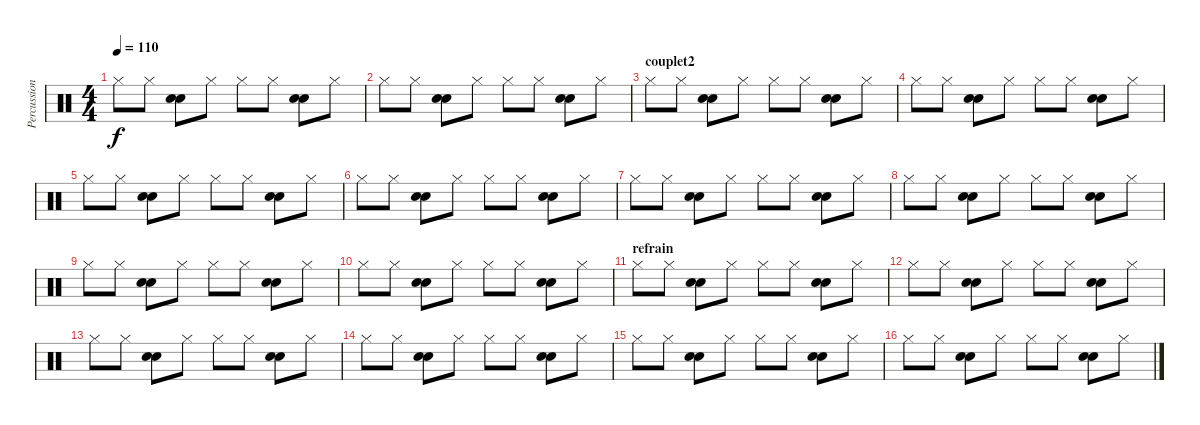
\track ("Percussions" "Percussion") {instrument percussion}
\staff {score}
\articulation defaults
\ts (4 4)
\tempo 110
\clef neutral
\ks c "Hi-Hat (closed)".8{dy f} "Hi-Hat (closed)".8
("Snare (hit) 2" "Electric Snare (hit)").8 "Hi-Hat (closed)".8 "Hi-Hat (closed)".8 "Hi-Hat (closed)".8 ("Snare (hit) 2" "Electric Snare (hit)").8 "Hi-Hat (closed)".8 |
"Hi-Hat (closed)".8 "Hi-Hat (closed)".8 ("Snare (hit) 2" "Electric Snare (hit)").8 "Hi-Hat (closed)".8 "Hi-Hat (closed)".8 "Hi-Hat (closed)".8 ("Snare (hit) 2" "Electric Snare (hit)").8 "Hi-Hat (closed)".8 |
\section ("" "couplet2")
"Hi-Hat (closed)".8 "Hi-Hat (closed)".8 ("Snare (hit) 2" "Electric Snare (hit)").8 "Hi-Hat (closed)".8 "Hi-Hat (closed)".8 "Hi-Hat (closed)".8 ("Snare (hit) 2" "Electric Snare (hit)").8 "Hi-Hat (closed)".8 |
"Hi-Hat (closed)".8 "Hi-Hat (closed)".8 ("Snare (hit) 2" "Electric Snare (hit)").8 "Hi-Hat (closed)".8 "Hi-Hat (closed)".8 "Hi-Hat (closed)".8 ("Snare (hit) 2" "Electric Snare (hit)").8 "Hi-Hat (closed)".8 |
"Hi-Hat (closed)".8 "Hi-Hat (closed)".8 ("Snare (hit) 2" "Electric Snare (hit)").8 "Hi-Hat (closed)".8 "Hi-Hat (closed)".8 "Hi-Hat (closed)".8 ("Snare (hit) 2" "Electric Snare (hit)").8 "Hi-Hat (closed)".8 |
"Hi-Hat (closed)".8 "Hi-Hat (closed)".8 ("Snare (hit) 2" "Electric Snare (hit)").8 "Hi-Hat (closed)".8 "Hi-Hat (closed)".8 "Hi-Hat (closed)".8 ("Snare (hit) 2" "Electric Snare (hit)").8 "Hi-Hat (closed)".8 |
"Hi-Hat (closed)".8 "Hi-Hat (closed)".8 ("Snare (hit) 2" "Electric Snare (hit)").8 "Hi-Hat (closed)".8 "Hi-Hat (closed)".8 "Hi-Hat (closed)".8 ("Snare (hit) 2" "Electric Snare (hit)").8 "Hi-Hat (closed)".8 |
"Hi-Hat (closed)".8 "Hi-Hat (closed)".8 ("Snare (hit) 2" "Electric Snare (hit)").8 "Hi-Hat (closed)".8 "Hi-Hat (closed)".8 "Hi-Hat (closed)".8 ("Snare (hit) 2" "Electric Snare (hit)").8 "Hi-Hat (closed)".8 |
"Hi-Hat (closed)".8 "Hi-Hat (closed)".8 ("Snare (hit) 2" "Electric Snare (hit)").8 "Hi-Hat (closed)".8 "Hi-Hat (closed)".8 "Hi-Hat (closed)".8 ("Snare (hit) 2" "Electric Snare (hit)").8 "Hi-Hat (closed)".8 |
"Hi-Hat (closed)".8 "Hi-Hat (closed)".8 ("Snare (hit) 2" "Electric Snare (hit)").8 "Hi-Hat (closed)".8 "Hi-Hat (closed)".8 "Hi-Hat (closed)".8 ("Snare (hit) 2" "Electric Snare (hit)").8 "Hi-Hat (closed)".8 |
\section ("" "refrain")
"Hi-Hat (closed)".8 "Hi-Hat (closed)".8 ("Snare (hit) 2" "Electric Snare (hit)").8 "Hi-Hat (closed)".8 "Hi-Hat (closed)".8 "Hi-Hat (closed)".8 ("Snare (hit) 2" "Electric Snare (hit)").8 "Hi-Hat (closed)".8 |
"Hi-Hat (closed)".8 "Hi-Hat (closed)".8 ("Snare (hit) 2" "Electric Snare (hit)").8 "Hi-Hat (closed)".8 "Hi-Hat (closed)".8 "Hi-Hat (closed)".8 ("Snare (hit) 2" "Electric Snare (hit)").8 "Hi-Hat (closed)".8 |
"Hi-Hat (closed)".8 "Hi-Hat (closed)".8 ("Snare (hit) 2" "Electric Snare (hit)").8 "Hi-Hat (closed)".8 "Hi-Hat (closed)".8 "Hi-Hat (closed)".8 ("Snare (hit) 2" "Electric Snare (hit)").8 "Hi-Hat (closed)".8 |
"Hi-Hat (closed)".8 "Hi-Hat (closed)".8 ("Snare (hit) 2" "Electric Snare (hit)").8 "Hi-Hat (closed)".8 "Hi-Hat (closed)".8 "Hi-Hat (closed)".8 ("Snare (hit) 2" "Electric Snare (hit)").8 "Hi-Hat (closed)".8 |
"Hi-Hat (closed)".8 "Hi-Hat (closed)".8 ("Snare (hit) 2" "Electric Snare (hit)").8 "Hi-Hat (closed)".8 "Hi-Hat (closed)".8 "Hi-Hat (closed)".8 ("Snare (hit) 2" "Electric Snare (hit)").8 "Hi-Hat (closed)".8 |
"Hi-Hat (closed)".8 "Hi-Hat (closed)".8 ("Snare (hit) 2" "Electric Snare (hit)").8 "Hi-Hat (closed)".8 "Hi-Hat (closed)".8 "Hi-Hat (closed)".8 ("Snare (hit) 2" "Electric Snare (hit)").8 "Hi-Hat (closed)".8
